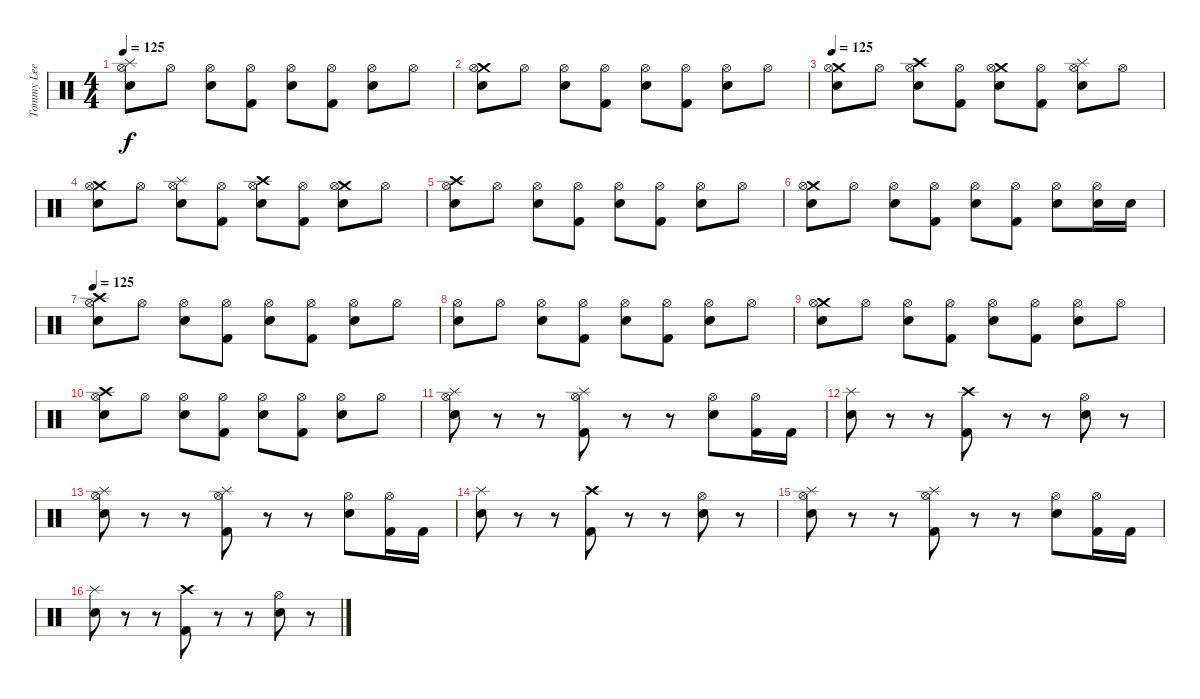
\track ("Tommy Lee" "Tommy Lee") {instrument percussion}
\staff {score}
\articulation defaults
\ts (4 4)
\tempo 125
\clef neutral
\ks c
("Splash (hit)" "Hi-Hat (open)" "Snare (hit) 2").8{dy f} "Hi-Hat (open)".8 ("Hi-Hat (open)" "Snare (hit) 2").8 ("Hi-Hat (open)" "Kick (hit) 2").8 ("Hi-Hat (open)" "Snare (hit) 2").8 ("Hi-Hat (open)" "Kick (hit) 2").8 ("Hi-Hat (open)" "Snare (hit) 2").8 "Hi-Hat (open)".8 |
("Crash medium (hit)" "Hi-Hat (open)" "Snare (hit) 2").8 "Hi-Hat (open)".8 ("Hi-Hat (open)" "Snare (hit) 2").8 ("Hi-Hat (open)" "Kick (hit) 2").8 ("Hi-Hat (open)" "Snare (hit) 2").8 ("Hi-Hat (open)" "Kick (hit) 2").8 ("Hi-Hat (open)" "Snare (hit) 2").8 "Hi-Hat (open)".8 |
\tempo 125
("Crash medium (hit)" "Hi-Hat (open)" "Snare (hit) 2").8 "Hi-Hat (open)".8 ("Crash high (hit)" "Hi-Hat (open)" "Snare (hit) 2").8 ("Hi-Hat (open)" "Kick (hit) 2").8 ("Crash medium (hit)" "Hi-Hat (open)" "Snare (hit) 2").8 ("Hi-Hat (open)" "Kick (hit) 2").8 ("Splash (hit)" "Hi-Hat (open)" "Snare (hit) 2").8 "Hi-Hat (open)".8 |
("Crash medium (hit)" "Hi-Hat (open)" "Snare (hit) 2").8 "Hi-Hat (open)".8 ("Splash (hit)" "Hi-Hat (open)" "Snare (hit) 2").8 ("Hi-Hat (open)" "Kick (hit) 2").8 ("Crash high (hit)" "Hi-Hat (open)" "Snare (hit) 2").8 ("Hi-Hat (open)" "Kick (hit) 2").8 ("Crash medium (hit)" "Hi-Hat (open)" "Snare (hit) 2").8 "Hi-Hat (open)".8 |
("Crash high (hit)" "Hi-Hat (open)" "Snare (hit) 2").8 "Hi-Hat (open)".8 ("Hi-Hat (open)" "Snare (hit) 2").8 ("Hi-Hat (open)" "Kick (hit) 2").8 ("Hi-Hat (open)" "Snare (hit) 2").8 ("Hi-Hat (open)" "Kick (hit) 2").8 ("Hi-Hat (open)" "Snare (hit) 2").8 "Hi-Hat (open)".8 |
("Crash medium (hit)" "Hi-Hat (open)" "Snare (hit) 2").8 "Hi-Hat (open)".8 ("Hi-Hat (open)" "Snare (hit) 2").8 ("Hi-Hat (open)" "Kick (hit) 2").8 ("Hi-Hat (open)" "Snare (hit) 2").8 ("Hi-Hat (open)" "Kick (hit) 2").8 ("Hi-Hat (open)" "Snare (hit) 2").8 ("Hi-Hat (open)" "Snare (hit) 2").16 "Snare (hit) 2".16 |
\tempo 125
("Crash high (hit)" "Hi-Hat (open)" "Snare (hit) 2").8 "Hi-Hat (open)".8 ("Hi-Hat (open)" "Snare (hit) 2").8 ("Hi-Hat (open)" "Kick (hit) 2").8 ("Hi-Hat (open)" "Snare (hit) 2").8 ("Hi-Hat (open)" "Kick (hit) 2").8 ("Hi-Hat (open)" "Snare (hit) 2").8 "Hi-Hat (open)".8 |
("Hi-Hat (open)" "Snare (hit) 2").8 "Hi-Hat (open)".8 ("Hi-Hat (open)" "Snare (hit) 2").8 ("Hi-Hat (open)" "Kick (hit) 2").8 ("Hi-Hat (open)" "Snare (hit) 2").8 ("Hi-Hat (open)" "Kick (hit) 2").8 ("Hi-Hat (open)" "Snare (hit) 2").8 "Hi-Hat (open)".8 |
("Crash medium (hit)" "Hi-Hat (open)" "Snare (hit) 2").8 "Hi-Hat (open)".8 ("Hi-Hat (open)" "Snare (hit) 2").8 ("Hi-Hat (open)" "Kick (hit) 2").8 ("Hi-Hat (open)" "Snare (hit) 2").8 ("Hi-Hat (open)" "Kick (hit) 2").8 ("Hi-Hat (open)" "Snare (hit) 2").8 "Hi-Hat (open)".8 |
("Crash high (hit)" "Hi-Hat (open)" "Snare (hit) 2").8 "Hi-Hat (open)".8 ("Hi-Hat (open)" "Snare (hit) 2").8 ("Hi-Hat (open)" "Kick (hit) 2").8 ("Hi-Hat (open)" "Snare (hit) 2").8 ("Hi-Hat (open)" "Kick (hit) 2").8 ("Hi-Hat (open)" "Snare (hit) 2").8 "Hi-Hat (open)".8 |
("Splash (hit)" "Hi-Hat (open)" "Snare (hit) 2").8 r.8 r.8 ("Splash (hit)" "Hi-Hat (open)" "Kick (hit) 2").8 r.8 r.8 ("Hi-Hat (open)" "Snare (hit) 2").8 ("Hi-Hat (open)" "Kick (hit) 2").16 "Kick (hit) 2".16 |
("Splash (hit)" "Snare (hit) 2").8 r.8 r.8 ("Kick (hit) 2" "Crash high (hit)").8 r.8 r.8 ("Hi-Hat (open)" "Snare (hit) 2").8 r.8 |
("Splash (hit)" "Hi-Hat (open)" "Snare (hit) 2").8 r.8 r.8 ("Splash (hit)" "Hi-Hat (open)" "Kick (hit) 2").8 r.8 r.8 ("Hi-Hat (open)" "Snare (hit) 2").8 ("Hi-Hat (open)" "Kick (hit) 2").16 "Kick (hit) 2".16 |
("Splash (hit)" "Snare (hit) 2").8 r.8 r.8 ("Kick (hit) 2" "Crash high (hit)").8 r.8 r.8 ("Hi-Hat (open)" "Snare (hit) 2").8 r.8 |
("Splash (hit)" "Hi-Hat (open)" "Snare (hit) 2").8 r.8 r.8 ("Splash (hit)" "Hi-Hat (open)" "Kick (hit) 2").8 r.8 r.8 ("Hi-Hat (open)" "Snare (hit) 2").8 ("Hi-Hat (open)" "Kick (hit) 2").16 "Kick (hit) 2".16 |
("Splash (hit)" "Snare (hit) 2").8 r.8 r.8 ("Kick (hit) 2" "Crash high (hit)").8 r.8 r.8 ("Hi-Hat (open)" "Snare (hit) 2").8 r.8
